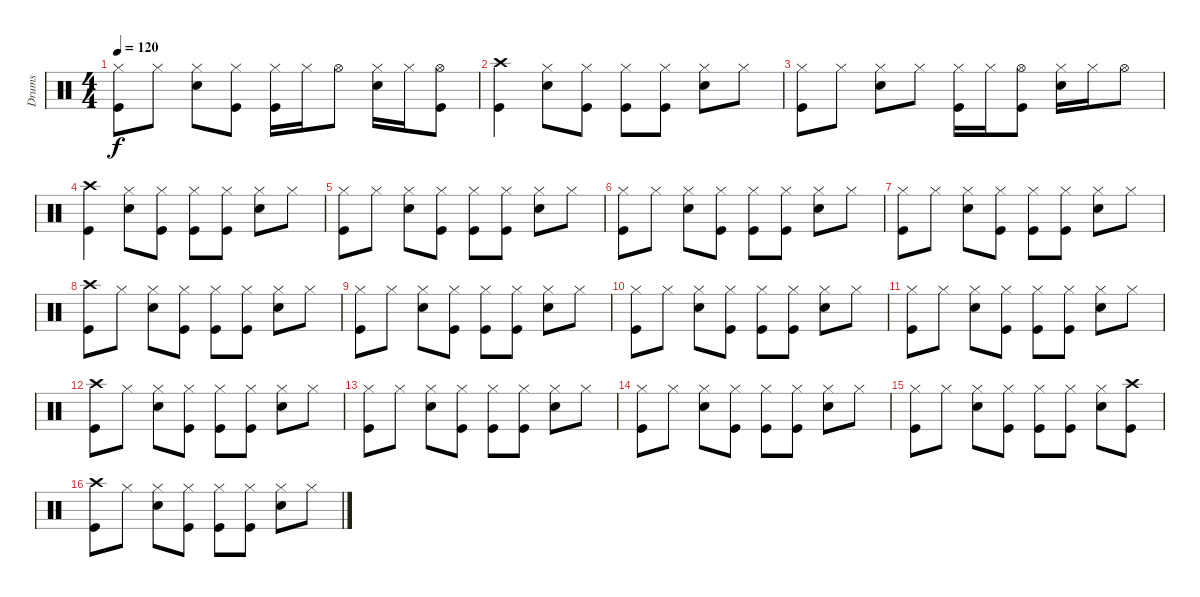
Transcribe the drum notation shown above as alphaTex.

\track ("Drums" "Drums") {instrument percussion}
\staff {score}
\articulation defaults
\ts (4 4)
\tempo 120
\clef neutral
\ks c
("Hi-Hat (closed)" "Kick (hit)").8{dy f} "Hi-Hat (closed)".8 ("Hi-Hat (closed)" "Snare (hit) 2").8 ("Hi-Hat (closed)" "Kick (hit)").8 ("Hi-Hat (closed)" "Kick (hit)").16 "Hi-Hat (closed)".16 "Hi-Hat (open)".8 ("Hi-Hat (closed)" "Snare (hit) 2").16 "Hi-Hat (closed)".16 ("Hi-Hat (open)" "Kick (hit)").8 |
("Crash high (hit)" "Kick (hit)").4 ("Hi-Hat (closed)" "Snare (hit) 2").8 ("Hi-Hat (closed)" "Kick (hit)").8 ("Hi-Hat (closed)" "Kick (hit)").8 ("Hi-Hat (closed)" "Kick (hit)").8 ("Hi-Hat (closed)" "Snare (hit) 2").8 "Hi-Hat (closed)".8 |
("Hi-Hat (closed)" "Kick (hit)").8 "Hi-Hat (closed)".8 ("Hi-Hat (closed)" "Snare (hit) 2").8 "Hi-Hat (closed)".8 ("Hi-Hat (closed)" "Kick (hit)").16 "Hi-Hat (closed)".16 ("Hi-Hat (open)" "Kick (hit)").8 ("Hi-Hat (closed)" "Snare (hit) 2").16 "Hi-Hat (closed)".16 "Hi-Hat (open)".8 |
("Crash high (hit)" "Kick (hit)").4 ("Hi-Hat (closed)" "Snare (hit) 2").8 ("Hi-Hat (closed)" "Kick (hit)").8 ("Hi-Hat (closed)" "Kick (hit)").8 ("Hi-Hat (closed)" "Kick (hit)").8 ("Hi-Hat (closed)" "Snare (hit) 2").8 "Hi-Hat (closed)".8 |
("Hi-Hat (closed)" "Kick (hit)").8 "Hi-Hat (closed)".8 ("Hi-Hat (closed)" "Snare (hit) 2").8 ("Hi-Hat (closed)" "Kick (hit)").8 ("Hi-Hat (closed)" "Kick (hit)").8 ("Hi-Hat (closed)" "Kick (hit)").8 ("Hi-Hat (closed)" "Snare (hit) 2").8 "Hi-Hat (closed)".8 |
("Hi-Hat (closed)" "Kick (hit)").8 "Hi-Hat (closed)".8 ("Hi-Hat (closed)" "Snare (hit) 2").8 ("Hi-Hat (closed)" "Kick (hit)").8 ("Hi-Hat (closed)" "Kick (hit)").8 ("Hi-Hat (closed)" "Kick (hit)").8 ("Hi-Hat (closed)" "Snare (hit) 2").8 "Hi-Hat (closed)".8 |
("Hi-Hat (closed)" "Kick (hit)").8 "Hi-Hat (closed)".8 ("Hi-Hat (closed)" "Snare (hit) 2").8 ("Hi-Hat (closed)" "Kick (hit)").8 ("Hi-Hat (closed)" "Kick (hit)").8 ("Hi-Hat (closed)" "Kick (hit)").8 ("Hi-Hat (closed)" "Snare (hit) 2").8 "Hi-Hat (closed)".8 |
("Crash high (hit)" "Kick (hit)").8 "Hi-Hat (closed)".8 ("Hi-Hat (closed)" "Snare (hit) 2").8 ("Hi-Hat (closed)" "Kick (hit)").8 ("Hi-Hat (closed)" "Kick (hit)").8 ("Hi-Hat (closed)" "Kick (hit)").8 ("Hi-Hat (closed)" "Snare (hit) 2").8 "Hi-Hat (closed)".8 |
("Hi-Hat (closed)" "Kick (hit)").8 "Hi-Hat (closed)".8 ("Hi-Hat (closed)" "Snare (hit) 2").8 ("Hi-Hat (closed)" "Kick (hit)").8 ("Hi-Hat (closed)" "Kick (hit)").8 ("Hi-Hat (closed)" "Kick (hit)").8 ("Hi-Hat (closed)" "Snare (hit) 2").8 "Hi-Hat (closed)".8 |
("Hi-Hat (closed)" "Kick (hit)").8 "Hi-Hat (closed)".8 ("Hi-Hat (closed)" "Snare (hit) 2").8 ("Hi-Hat (closed)" "Kick (hit)").8 ("Hi-Hat (closed)" "Kick (hit)").8 ("Hi-Hat (closed)" "Kick (hit)").8 ("Hi-Hat (closed)" "Snare (hit) 2").8 "Hi-Hat (closed)".8 |
("Hi-Hat (closed)" "Kick (hit)").8 "Hi-Hat (closed)".8 ("Hi-Hat (closed)" "Snare (hit) 2").8 ("Hi-Hat (closed)" "Kick (hit)").8 ("Hi-Hat (closed)" "Kick (hit)").8 ("Hi-Hat (closed)" "Kick (hit)").8 ("Hi-Hat (closed)" "Snare (hit) 2").8 "Hi-Hat (closed)".8 |
("Crash high (hit)" "Kick (hit)").8 "Hi-Hat (closed)".8 ("Hi-Hat (closed)" "Snare (hit) 2").8 ("Hi-Hat (closed)" "Kick (hit)").8 ("Hi-Hat (closed)" "Kick (hit)").8 ("Hi-Hat (closed)" "Kick (hit)").8 ("Hi-Hat (closed)" "Snare (hit) 2").8 "Hi-Hat (closed)".8 |
("Hi-Hat (closed)" "Kick (hit)").8 "Hi-Hat (closed)".8 ("Hi-Hat (closed)" "Snare (hit) 2").8 ("Hi-Hat (closed)" "Kick (hit)").8 ("Hi-Hat (closed)" "Kick (hit)").8 ("Hi-Hat (closed)" "Kick (hit)").8 ("Hi-Hat (closed)" "Snare (hit) 2").8 "Hi-Hat (closed)".8 |
("Hi-Hat (closed)" "Kick (hit)").8 "Hi-Hat (closed)".8 ("Hi-Hat (closed)" "Snare (hit) 2").8 ("Hi-Hat (closed)" "Kick (hit)").8 ("Hi-Hat (closed)" "Kick (hit)").8 ("Hi-Hat (closed)" "Kick (hit)").8 ("Hi-Hat (closed)" "Snare (hit) 2").8 "Hi-Hat (closed)".8 |
("Hi-Hat (closed)" "Kick (hit)").8 "Hi-Hat (closed)".8 ("Hi-Hat (closed)" "Snare (hit) 2").8 ("Hi-Hat (closed)" "Kick (hit)").8 ("Hi-Hat (closed)" "Kick (hit)").8 ("Hi-Hat (closed)" "Kick (hit)").8 ("Hi-Hat (closed)" "Snare (hit) 2").8 ("Crash high (hit)" "Kick (hit)").8 |
("Crash high (hit)" "Kick (hit)").8 "Hi-Hat (closed)".8 ("Hi-Hat (closed)" "Snare (hit) 2").8 ("Hi-Hat (closed)" "Kick (hit)").8 ("Hi-Hat (closed)" "Kick (hit)").8 ("Hi-Hat (closed)" "Kick (hit)").8 ("Hi-Hat (closed)" "Snare (hit) 2").8 "Hi-Hat (closed)".8
